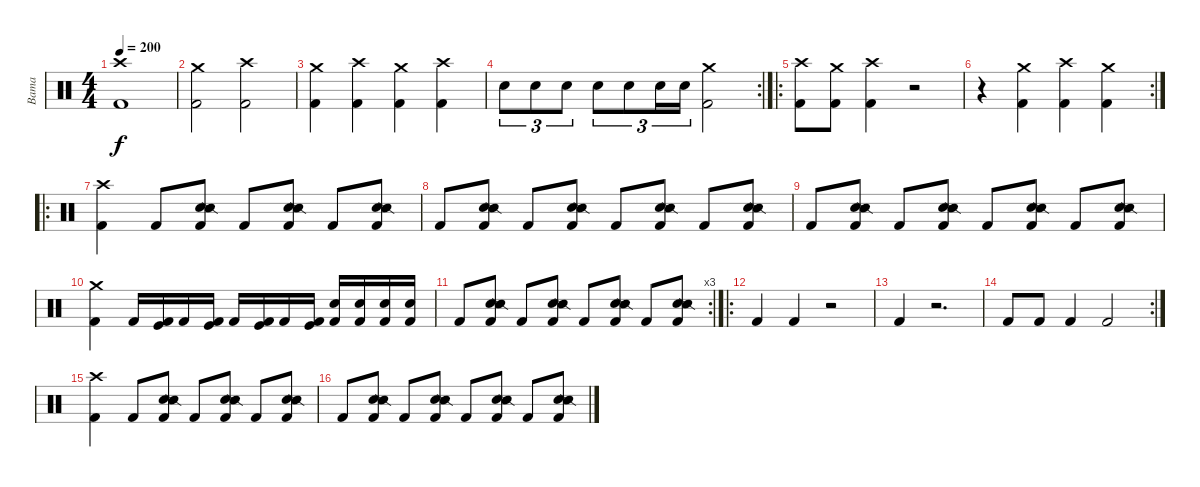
\track ("Bama" "Bama") {instrument percussion}
\staff {score}
\articulation defaults
\ts (4 4)
\tempo 200
\clef neutral
\ks c
("Crash high (hit)" "Kick (hit) 2").1{dy f} |
("Crash medium (hit)" "Kick (hit) 2").2 ("Crash high (hit)" "Kick (hit) 2").2 |
("Crash medium (hit)" "Kick (hit) 2").4 ("Crash high (hit)" "Kick (hit) 2").4 ("Crash medium (hit)" "Kick (hit) 2").4 ("Crash high (hit)" "Kick (hit) 2").4 |
\rc 2 "Electric Snare (hit)".8{tu (3 2)} "Electric Snare (hit)".8{tu (3 2)} "Electric Snare (hit)".8{tu (3 2)} "Electric Snare (hit)".8{tu (3 2)} "Electric Snare (hit)".8{tu (3 2)} "Electric Snare (hit)".16{tu (3 2)} "Electric Snare (hit)".16{tu (3 2)}
("Crash medium (hit)" "Kick (hit) 2").2 |
\ro
("Crash high (hit)" "Kick (hit) 2").8 ("Crash medium (hit)" "Kick (hit) 2").8 ("Crash high (hit)" "Kick (hit) 2").4 r.2 |
\rc 2
r.4 ("Crash medium (hit)" "Kick (hit) 2").4 ("Crash high (hit)" "Kick (hit) 2").4 ("Crash medium (hit)" "Kick (hit) 2").4 |
\ro
("Crash high (hit)" "Kick (hit) 2").4 "Kick (hit) 2".8 ("Electric Snare (hit)" "Snare (side stick) 2" "Kick (hit) 2").8 "Kick (hit) 2".8 ("Electric Snare (hit)" "Snare (side stick) 2" "Kick (hit) 2").8 "Kick (hit) 2".8 ("Electric Snare (hit)" "Snare (side stick) 2" "Kick (hit) 2").8 |
"Kick (hit) 2".8 ("Electric Snare (hit)" "Snare (side stick) 2" "Kick (hit) 2").8 "Kick (hit) 2".8 ("Electric Snare (hit)" "Snare (side stick) 2" "Kick (hit) 2").8 "Kick (hit) 2".8 ("Electric Snare (hit)" "Snare (side stick) 2" "Kick (hit) 2").8 "Kick (hit) 2".8 ("Electric Snare (hit)" "Snare (side stick) 2" "Kick (hit) 2").8 |
"Kick (hit) 2".8 ("Electric Snare (hit)" "Snare (side stick) 2" "Kick (hit) 2").8 "Kick (hit) 2".8 ("Electric Snare (hit)" "Snare (side stick) 2" "Kick (hit) 2").8 "Kick (hit) 2".8 ("Electric Snare (hit)" "Snare (side stick) 2" "Kick (hit) 2").8 "Kick (hit) 2".8 ("Electric Snare (hit)" "Snare (side stick) 2" "Kick (hit) 2").8 |
("Crash medium (hit)" "Kick (hit) 2").4 "Kick (hit) 2".16 ("Kick (hit)" "Kick (hit) 2").16 "Kick (hit) 2".16 ("Kick (hit)" "Kick (hit) 2").16 "Kick (hit) 2".16 ("Kick (hit)" "Kick (hit) 2").16 "Kick (hit) 2".16 ("Kick (hit)" "Kick (hit) 2").16 ("Electric Snare (hit)" "Kick (hit) 2").16 ("Electric Snare (hit)" "Kick (hit) 2").16 ("Electric Snare (hit)" "Kick (hit) 2").16 ("Electric Snare (hit)" "Kick (hit) 2").16 |
\rc 3 "Kick (hit) 2".8
("Electric Snare (hit)" "Snare (side stick) 2" "Kick (hit) 2").8 "Kick (hit) 2".8 ("Electric Snare (hit)" "Snare (side stick) 2" "Kick (hit) 2").8 "Kick (hit) 2".8 ("Electric Snare (hit)" "Snare (side stick) 2" "Kick (hit) 2").8 "Kick (hit) 2".8 ("Electric Snare (hit)" "Snare (side stick) 2" "Kick (hit) 2").8 |
\ro "Kick (hit) 2".4 "Kick (hit) 2".4
r.2 |
"Kick (hit) 2".4 r.2{d} |
\rc 2 "Kick (hit) 2".8 "Kick (hit) 2".8 "Kick (hit) 2".4 "Kick (hit) 2".2
|
("Crash high (hit)" "Kick (hit) 2").4 "Kick (hit) 2".8 ("Electric Snare (hit)" "Snare (side stick) 2" "Kick (hit) 2").8 "Kick (hit) 2".8 ("Electric Snare (hit)" "Snare (side stick) 2" "Kick (hit) 2").8 "Kick (hit) 2".8 ("Electric Snare (hit)" "Snare (side stick) 2" "Kick (hit) 2").8 |
"Kick (hit) 2".8 ("Electric Snare (hit)" "Snare (side stick) 2" "Kick (hit) 2").8 "Kick (hit) 2".8 ("Electric Snare (hit)" "Snare (side stick) 2" "Kick (hit) 2").8 "Kick (hit) 2".8 ("Electric Snare (hit)" "Snare (side stick) 2" "Kick (hit) 2").8 "Kick (hit) 2".8 ("Electric Snare (hit)" "Snare (side stick) 2" "Kick (hit) 2").8
